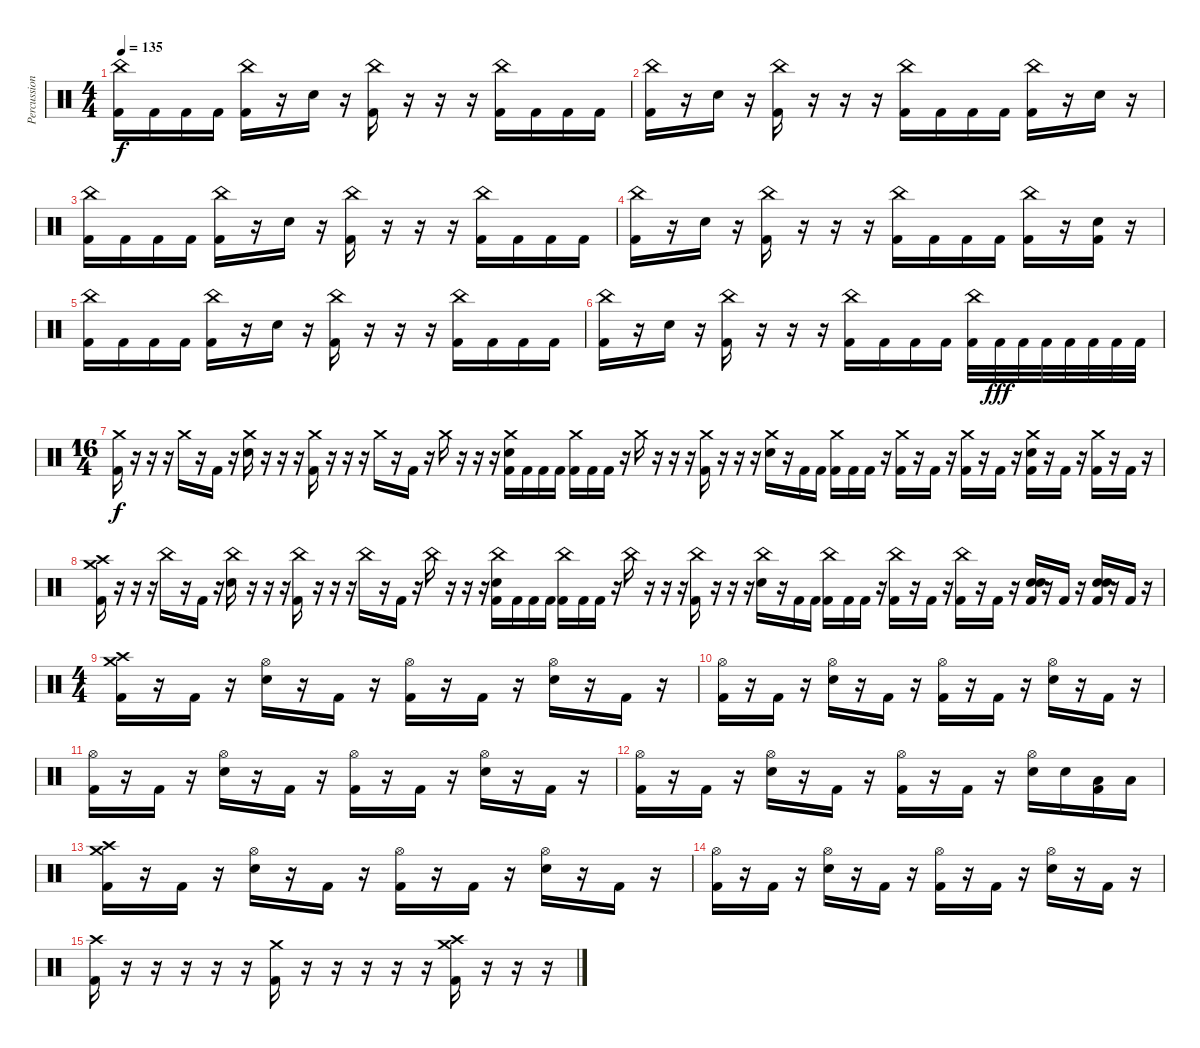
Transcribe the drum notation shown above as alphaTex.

\track ("Percussion" "Percussion") {instrument percussion}
\staff {score}
\articulation defaults
\ts (4 4)
\tempo 135
\clef neutral
\ks c
("China (hit)" "Kick (hit) 2").16{dy f} "Kick (hit) 2".16 "Kick (hit) 2".16 "Kick (hit) 2".16 ("China (hit)" "Kick (hit) 2").16 r.16 "Snare (hit) 2".16 r.16 ("China (hit)" "Kick (hit) 2").16 r.16 r.16 r.16 ("China (hit)" "Kick (hit) 2").16 "Kick (hit) 2".16 "Kick (hit) 2".16 "Kick (hit) 2".16 |
("China (hit)" "Kick (hit) 2").16 r.16 "Snare (hit) 2".16 r.16 ("China (hit)" "Kick (hit) 2").16 r.16 r.16 r.16 ("China (hit)" "Kick (hit) 2").16 "Kick (hit) 2".16 "Kick (hit) 2".16 "Kick (hit) 2".16 ("China (hit)" "Kick (hit) 2").16 r.16 "Snare (hit) 2".16 r.16 |
("China (hit)" "Kick (hit) 2").16 "Kick (hit) 2".16 "Kick (hit) 2".16 "Kick (hit) 2".16 ("China (hit)" "Kick (hit) 2").16 r.16 "Snare (hit) 2".16 r.16 ("China (hit)" "Kick (hit) 2").16 r.16 r.16 r.16 ("China (hit)" "Kick (hit) 2").16 "Kick (hit) 2".16 "Kick (hit) 2".16 "Kick (hit) 2".16 |
("China (hit)" "Kick (hit) 2").16 r.16 "Snare (hit) 2".16 r.16 ("China (hit)" "Kick (hit) 2").16 r.16 r.16 r.16 ("China (hit)" "Kick (hit) 2").16 "Kick (hit) 2".16 "Kick (hit) 2".16 "Kick (hit) 2".16 ("China (hit)" "Kick (hit) 2").16 r.16 ("Snare (hit) 2" "Kick (hit) 2").16 r.16 |
("China (hit)" "Kick (hit) 2").16 "Kick (hit) 2".16 "Kick (hit) 2".16 "Kick (hit) 2".16 ("China (hit)" "Kick (hit) 2").16 r.16 "Snare (hit) 2".16 r.16 ("China (hit)" "Kick (hit) 2").16 r.16 r.16 r.16 ("China (hit)" "Kick (hit) 2").16 "Kick (hit) 2".16 "Kick (hit) 2".16 "Kick (hit) 2".16 |
("China (hit)" "Kick (hit) 2").16 r.16 "Snare (hit) 2".16 r.16 ("China (hit)" "Kick (hit) 2").16 r.16 r.16 r.16 ("China (hit)" "Kick (hit) 2").16 "Kick (hit) 2".16 "Kick (hit) 2".16 "Kick (hit) 2".16 ("China (hit)" "Kick (hit) 2").32 "Kick (hit) 2".32{dy fff} "Kick (hit) 2".32 "Kick (hit) 2".32 "Kick (hit) 2".32 "Kick (hit) 2".32 "Kick (hit) 2".32 "Kick (hit) 2".32 |
\ts (16 4)
("Crash medium (hit)" "Kick (hit) 2").16{dy f} r.16 r.16 r.16 "Crash medium (hit)".16 r.16 "Kick (hit) 2".16 r.16 ("Crash medium (hit)" "Snare (hit) 2").16 r.16 r.16 r.16 ("Crash medium (hit)" "Kick (hit) 2").16 r.16 r.16 r.16 "Crash medium (hit)".16 r.16 "Kick (hit) 2".16 r.16 "Crash medium (hit)".16 r.16 r.16 r.16 ("Crash medium (hit)" "Snare (hit) 2" "Kick (hit) 2").16 "Kick (hit) 2".16 "Kick (hit) 2".16 "Kick (hit) 2".16 ("Crash medium (hit)" "Kick (hit) 2").16 "Kick (hit) 2".16 "Kick (hit) 2".16 r.16 "Crash medium (hit)".16 r.16 r.16 r.16 ("Crash medium (hit)" "Kick (hit) 2").16 r.16 r.16 r.16 ("Crash medium (hit)" "Snare (hit) 2").16 r.16 "Kick (hit) 2".16 "Kick (hit) 2".16 ("Crash medium (hit)" "Kick (hit) 2").16 "Kick (hit) 2".16 "Kick (hit) 2".16 r.16 ("Crash medium (hit)" "Kick (hit) 2").16 r.16 "Kick (hit) 2".16 r.16 ("Crash medium (hit)" "Kick (hit) 2").16 r.16 "Kick (hit) 2".16 r.16 ("Crash medium (hit)" "Snare (hit) 2" "Kick (hit) 2").16 r.16 "Kick (hit) 2".16 r.16 ("Crash medium (hit)" "Kick (hit) 2").16 r.16 "Kick (hit) 2".16 r.16 |
("Crash medium (hit)" "Crash high (hit)" "Kick (hit) 2").16 r.16 r.16 r.16 "China (hit)".16 r.16 "Kick (hit) 2".16 r.16 ("China (hit)" "Snare (hit) 2").16 r.16 r.16 r.16 ("China (hit)" "Kick (hit) 2").16 r.16 r.16 r.16 "China (hit)".16 r.16 "Kick (hit) 2".16 r.16 "China (hit)".16 r.16 r.16 r.16 ("China (hit)" "Snare (hit) 2" "Kick (hit) 2").16 "Kick (hit) 2".16 "Kick (hit) 2".16 "Kick (hit) 2".16 ("China (hit)" "Kick (hit) 2").16 "Kick (hit) 2".16 "Kick (hit) 2".16 r.16 "China (hit)".16 r.16 r.16 r.16 ("China (hit)" "Kick (hit) 2").16 r.16 r.16 r.16 ("China (hit)" "Snare (hit) 2").16 r.16 "Kick (hit) 2".16 "Kick (hit) 2".16 ("China (hit)" "Kick (hit) 2").16 "Kick (hit) 2".16 "Kick (hit) 2".16 r.16 ("China (hit)" "Kick (hit) 2").16 r.16 "Kick (hit) 2".16 r.16 ("China (hit)" "Kick (hit) 2").16 r.16 "Kick (hit) 2".16 r.16 ("Snare (hit) 2" "Snare (hit) 2" "Kick (hit) 2").16 r.16 "Kick (hit) 2".16 r.16 ("Snare (hit) 2" "Snare (hit) 2" "Kick (hit) 2").16 r.16 "Kick (hit) 2".16 r.16 |
\ts (4 4)
("Crash medium (hit)" "Crash high (hit)" "Kick (hit) 2").16 r.16 "Kick (hit) 2".16 r.16 ("Hi-Hat (open)" "Snare (hit) 2").16 r.16 "Kick (hit) 2".16 r.16 ("Hi-Hat (open)" "Kick (hit) 2").16 r.16 "Kick (hit) 2".16 r.16 ("Hi-Hat (open)" "Snare (hit) 2").16 r.16 "Kick (hit) 2".16 r.16 |
("Hi-Hat (open)" "Kick (hit) 2").16 r.16 "Kick (hit) 2".16 r.16 ("Hi-Hat (open)" "Snare (hit) 2").16 r.16 "Kick (hit) 2".16 r.16 ("Hi-Hat (open)" "Kick (hit) 2").16 r.16 "Kick (hit) 2".16 r.16 ("Hi-Hat (open)" "Snare (hit) 2").16 r.16 "Kick (hit) 2".16 r.16 |
("Hi-Hat (open)" "Kick (hit) 2").16 r.16 "Kick (hit) 2".16 r.16 ("Hi-Hat (open)" "Snare (hit) 2").16 r.16 "Kick (hit) 2".16 r.16 ("Hi-Hat (open)" "Kick (hit) 2").16 r.16 "Kick (hit) 2".16 r.16 ("Hi-Hat (open)" "Snare (hit) 2").16 r.16 "Kick (hit) 2".16 r.16 |
("Hi-Hat (open)" "Kick (hit) 2").16 r.16 "Kick (hit) 2".16 r.16 ("Hi-Hat (open)" "Snare (hit) 2").16 r.16 "Kick (hit) 2".16 r.16 ("Hi-Hat (open)" "Kick (hit) 2").16 r.16 "Kick (hit) 2".16 r.16 ("Hi-Hat (open)" "Snare (hit) 2").16 "Snare (hit) 2".16 ("Low Tom (hit)" "Kick (hit) 2").16 "Low Tom (hit)".16 |
("Crash medium (hit)" "Crash high (hit)" "Kick (hit) 2").16 r.16 "Kick (hit) 2".16 r.16 ("Hi-Hat (open)" "Snare (hit) 2").16 r.16 "Kick (hit) 2".16 r.16 ("Hi-Hat (open)" "Kick (hit) 2").16 r.16 "Kick (hit) 2".16 r.16 ("Hi-Hat (open)" "Snare (hit) 2").16 r.16 "Kick (hit) 2".16 r.16 |
("Hi-Hat (open)" "Kick (hit) 2").16 r.16 "Kick (hit) 2".16 r.16 ("Hi-Hat (open)" "Snare (hit) 2").16 r.16 "Kick (hit) 2".16 r.16 ("Hi-Hat (open)" "Kick (hit) 2").16 r.16 "Kick (hit) 2".16 r.16 ("Hi-Hat (open)" "Snare (hit) 2").16 r.16 "Kick (hit) 2".16 r.16 |
("Crash high (hit)" "Kick (hit) 2").16 r.16 r.16 r.16 r.16 r.16 ("Crash medium (hit)" "Kick (hit) 2").16 r.16 r.16 r.16 r.16 r.16 ("Crash high (hit)" "Crash medium (hit)" "Kick (hit) 2").16 r.16 r.16 r.16
